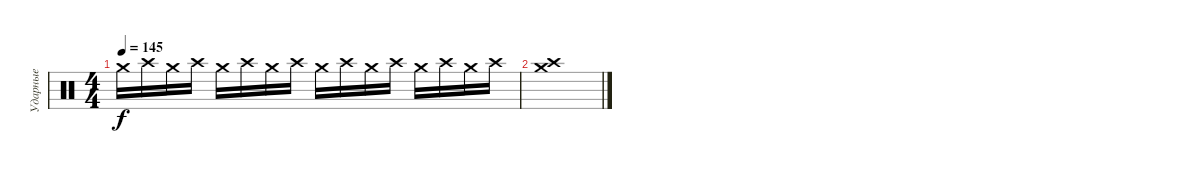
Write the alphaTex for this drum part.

\track ("Ударные" "Ударные") {instrument percussion}
\staff {score}
\articulation defaults
\ts (4 4)
\tempo 145
\clef neutral
\ks c "Crash medium (hit)".16{dy f} "Crash high (hit)".16 "Crash medium (hit)".16 "Crash high (hit)".16 "Crash medium (hit)".16 "Crash high (hit)".16 "Crash medium (hit)".16 "Crash high (hit)".16 "Crash medium (hit)".16 "Crash high (hit)".16 "Crash medium (hit)".16 "Crash high (hit)".16 "Crash medium (hit)".16 "Crash high (hit)".16 "Crash medium (hit)".16 "Crash high (hit)".16
|
("Crash medium (hit)" "Crash high (hit)").1
